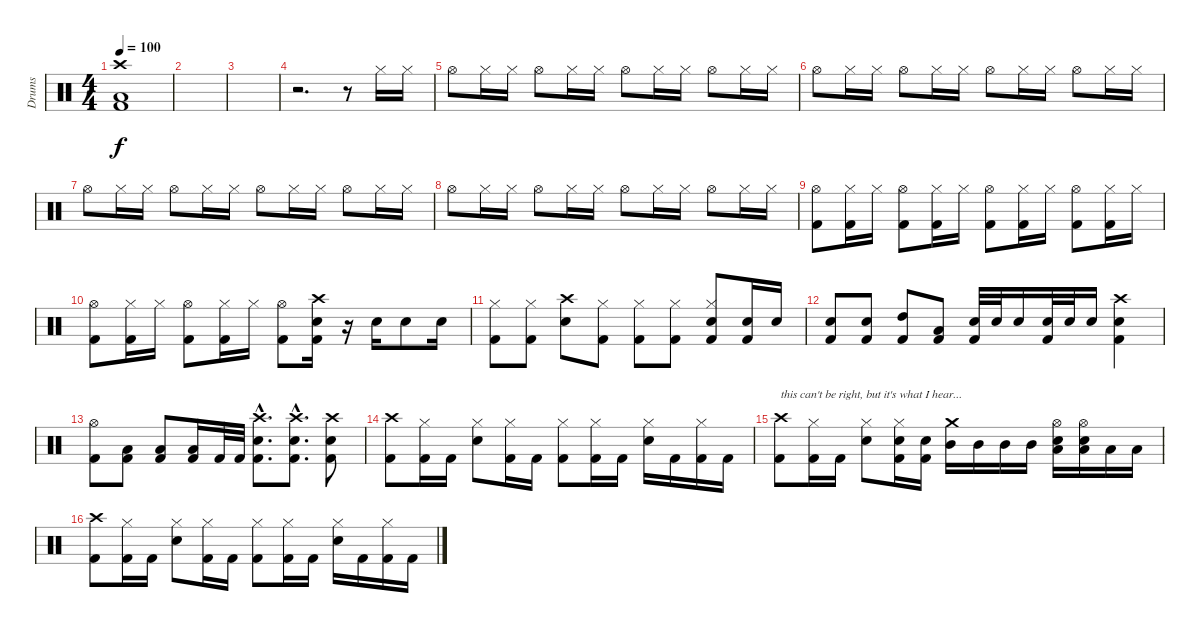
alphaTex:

\track ("Drums" "Drums") {instrument percussion}
\staff {score}
\articulation defaults
\ts (4 4)
\section ("" "")
\tempo 100
\clef neutral
\ks c
("Crash high (hit)" "Low Floor Tom (hit)" "Kick (hit) 2").1{dy f} |
|
|
r.2{d} r.8 "Hi-Hat (closed)".16 "Hi-Hat (closed)".16 |
"Hi-Hat (open)".8 "Hi-Hat (closed)".16 "Hi-Hat (closed)".16 "Hi-Hat (open)".8 "Hi-Hat (closed)".16 "Hi-Hat (closed)".16 "Hi-Hat (open)".8 "Hi-Hat (closed)".16 "Hi-Hat (closed)".16 "Hi-Hat (open)".8 "Hi-Hat (closed)".16 "Hi-Hat (closed)".16 |
"Hi-Hat (open)".8 "Hi-Hat (closed)".16 "Hi-Hat (closed)".16 "Hi-Hat (open)".8 "Hi-Hat (closed)".16 "Hi-Hat (closed)".16 "Hi-Hat (open)".8 "Hi-Hat (closed)".16 "Hi-Hat (closed)".16 "Hi-Hat (open)".8 "Hi-Hat (closed)".16 "Hi-Hat (closed)".16 |
"Hi-Hat (open)".8 "Hi-Hat (closed)".16 "Hi-Hat (closed)".16 "Hi-Hat (open)".8 "Hi-Hat (closed)".16 "Hi-Hat (closed)".16 "Hi-Hat (open)".8 "Hi-Hat (closed)".16 "Hi-Hat (closed)".16 "Hi-Hat (open)".8 "Hi-Hat (closed)".16 "Hi-Hat (closed)".16 |
"Hi-Hat (open)".8 "Hi-Hat (closed)".16 "Hi-Hat (closed)".16 "Hi-Hat (open)".8 "Hi-Hat (closed)".16 "Hi-Hat (closed)".16 "Hi-Hat (open)".8 "Hi-Hat (closed)".16 "Hi-Hat (closed)".16 "Hi-Hat (open)".8 "Hi-Hat (closed)".16 "Hi-Hat (closed)".16 |
("Hi-Hat (open)" "Kick (hit) 2").8 ("Hi-Hat (closed)" "Kick (hit) 2").16 "Hi-Hat (closed)".16 ("Hi-Hat (open)" "Kick (hit) 2").8 ("Hi-Hat (closed)" "Kick (hit) 2").16 "Hi-Hat (closed)".16 ("Hi-Hat (open)" "Kick (hit) 2").8 ("Hi-Hat (closed)" "Kick (hit) 2").16 "Hi-Hat (closed)".16 ("Hi-Hat (open)" "Kick (hit) 2").8 ("Hi-Hat (closed)" "Kick (hit) 2").16 "Hi-Hat (closed)".16 |
("Hi-Hat (open)" "Kick (hit) 2").8 ("Hi-Hat (closed)" "Kick (hit) 2").16 "Hi-Hat (closed)".16 ("Hi-Hat (open)" "Kick (hit) 2").8 ("Hi-Hat (closed)" "Kick (hit) 2").16 "Hi-Hat (closed)".16 ("Hi-Hat (open)" "Kick (hit) 2").8 ("Crash high (hit)" "Snare (hit) 2" "Kick (hit) 2").16 r.16 "Snare (hit) 2".16 "Snare (hit) 2".8 "Snare (hit) 2".16 |
("Hi-Hat (closed)" "Kick (hit) 2").8 ("Hi-Hat (closed)" "Kick (hit) 2").8 ("Crash high (hit)" "Snare (hit) 2").8 ("Hi-Hat (closed)" "Kick (hit) 2").8 ("Hi-Hat (closed)" "Kick (hit) 2").8 ("Hi-Hat (closed)" "Kick (hit) 2").8 ("Hi-Hat (closed)" "Snare (hit) 2" "Kick (hit) 2").8 ("Snare (hit) 2" "Kick (hit) 2").16 "Snare (hit) 2".16 |
("Snare (hit) 2" "Kick (hit) 2").8 ("Snare (hit) 2" "Kick (hit) 2").8 ("High Tom (hit)" "Kick (hit) 2").8 ("Low Tom (hit)" "Kick (hit) 2").8 ("Snare (hit) 2" "Kick (hit) 2").32 "Snare (hit) 2".32 "Snare (hit) 2".16 ("Snare (hit) 2" "Kick (hit) 2").32 "Snare (hit) 2".32 "Snare (hit) 2".16 ("Crash high (hit)" "Snare (hit) 2" "Kick (hit) 2").4 |
("Hi-Hat (open)" "Kick (hit) 2").8 ("Low Floor Tom (hit)" "Kick (hit) 2").8 ("Low Floor Tom (hit)" "Kick (hit) 2").8 ("Low Floor Tom (hit)" "Kick (hit) 2").16 "Kick (hit) 2".32 "Kick (hit) 2".32 ("Crash high (hit)"{hac} "Snare (hit) 2"{hac} "Kick (hit) 2"{hac}).8{d} ("Crash high (hit)"{hac} "Snare (hit) 2"{hac} "Kick (hit) 2"{hac}).8{d} ("Crash high (hit)" "Snare (hit) 2" "Kick (hit) 2").8 |
\section ("" "")
("Crash high (hit)" "Kick (hit) 2").8 ("Hi-Hat (closed)" "Kick (hit) 2").16 "Kick (hit) 2".16 ("Hi-Hat (closed)" "Snare (hit) 2").8 ("Hi-Hat (closed)" "Kick (hit) 2").16 "Kick (hit) 2".16 ("Hi-Hat (closed)" "Kick (hit) 2").8 ("Hi-Hat (closed)" "Kick (hit) 2").16 "Kick (hit) 2".16 ("Hi-Hat (closed)" "Snare (hit) 2").16 "Kick (hit) 2".16 ("Hi-Hat (closed)" "Kick (hit) 2").16 "Kick (hit) 2".16 |
("Crash high (hit)" "Kick (hit) 2").8{txt "this can't be right, but it's what I hear..."} ("Hi-Hat (closed)" "Kick (hit) 2").16 "Kick (hit) 2".16 ("Hi-Hat (closed)" "Snare (hit) 2").8 ("Hi-Hat (closed)" "Snare (hit) 2" "Kick (hit) 2").16 ("Snare (hit) 2" "Kick (hit) 2").16 ("Crash medium (hit)" "Mid Tom (hit)").16 "Mid Tom (hit)".16 "Mid Tom (hit)".16 "Mid Tom (hit)".16 ("Hi-Hat (open)" "Snare (hit) 2" "Low Tom (hit)").16 ("Hi-Hat (open)" "Snare (hit) 2" "Low Tom (hit)").16 "Low Tom (hit)".16 "Low Tom (hit)".16 |
("Crash high (hit)" "Kick (hit) 2").8 ("Hi-Hat (closed)" "Kick (hit) 2").16 "Kick (hit) 2".16 ("Hi-Hat (closed)" "Snare (hit) 2").8 ("Hi-Hat (closed)" "Kick (hit) 2").16 "Kick (hit) 2".16 ("Hi-Hat (closed)" "Kick (hit) 2").8 ("Hi-Hat (closed)" "Kick (hit) 2").16 "Kick (hit) 2".16 ("Hi-Hat (closed)" "Snare (hit) 2").16 "Kick (hit) 2".16 ("Hi-Hat (closed)" "Kick (hit) 2").16 "Kick (hit) 2".16
